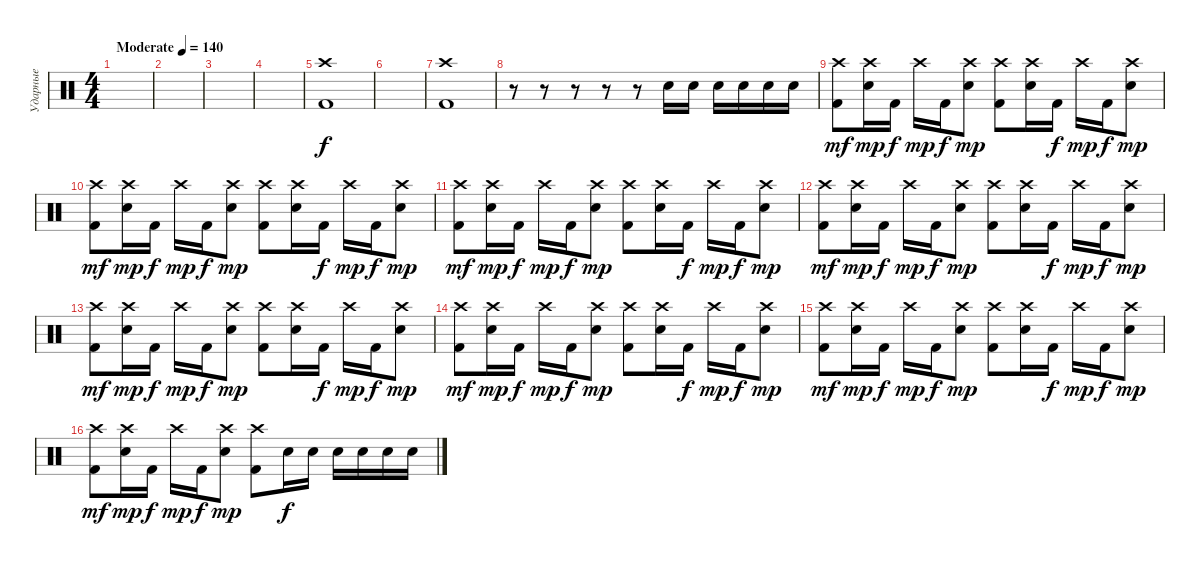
\track ("Ударные" "Ударные") {instrument percussion}
\staff {score}
\articulation defaults
\ts (4 4)
\tempo (140 "Moderate")
\clef neutral
\ks c
|
|
|
|
("Crash high (hit)" "Kick (hit) 2").1 |
|
("Crash high (hit)" "Kick (hit) 2").1 |
r.8 r.8 r.8 r.8 r.8 "Electric Snare (hit)".16 "Electric Snare (hit)".16 "Electric Snare (hit)".16 "Electric Snare (hit)".16 "Electric Snare (hit)".16 "Electric Snare (hit)".16 |
("Crash high (hit)" "Kick (hit) 2").8{dy mf} ("Crash high (hit)" "Electric Snare (hit)").16{dy mp} "Kick (hit) 2".16{dy f} "Crash high (hit)".16{dy mp} "Kick (hit) 2".16{dy f} ("Crash high (hit)" "Electric Snare (hit)").8{dy mp} ("Crash high (hit)" "Kick (hit) 2").8 ("Crash high (hit)" "Electric Snare (hit)").16 "Kick (hit) 2".16{dy f} "Crash high (hit)".16{dy mp} "Kick (hit) 2".16{dy f} ("Crash high (hit)" "Electric Snare (hit)").8{dy mp} |
("Crash high (hit)" "Kick (hit) 2").8{dy mf} ("Crash high (hit)" "Electric Snare (hit)").16{dy mp} "Kick (hit) 2".16{dy f} "Crash high (hit)".16{dy mp} "Kick (hit) 2".16{dy f} ("Crash high (hit)" "Electric Snare (hit)").8{dy mp} ("Crash high (hit)" "Kick (hit) 2").8 ("Crash high (hit)" "Electric Snare (hit)").16 "Kick (hit) 2".16{dy f} "Crash high (hit)".16{dy mp} "Kick (hit) 2".16{dy f} ("Crash high (hit)" "Electric Snare (hit)").8{dy mp} |
("Crash high (hit)" "Kick (hit) 2").8{dy mf} ("Crash high (hit)" "Electric Snare (hit)").16{dy mp} "Kick (hit) 2".16{dy f} "Crash high (hit)".16{dy mp} "Kick (hit) 2".16{dy f} ("Crash high (hit)" "Electric Snare (hit)").8{dy mp} ("Crash high (hit)" "Kick (hit) 2").8 ("Crash high (hit)" "Electric Snare (hit)").16 "Kick (hit) 2".16{dy f} "Crash high (hit)".16{dy mp} "Kick (hit) 2".16{dy f} ("Crash high (hit)" "Electric Snare (hit)").8{dy mp} |
("Crash high (hit)" "Kick (hit) 2").8{dy mf} ("Crash high (hit)" "Electric Snare (hit)").16{dy mp} "Kick (hit) 2".16{dy f} "Crash high (hit)".16{dy mp} "Kick (hit) 2".16{dy f} ("Crash high (hit)" "Electric Snare (hit)").8{dy mp} ("Crash high (hit)" "Kick (hit) 2").8 ("Crash high (hit)" "Electric Snare (hit)").16 "Kick (hit) 2".16{dy f} "Crash high (hit)".16{dy mp} "Kick (hit) 2".16{dy f} ("Crash high (hit)" "Electric Snare (hit)").8{dy mp} |
("Crash high (hit)" "Kick (hit) 2").8{dy mf} ("Crash high (hit)" "Electric Snare (hit)").16{dy mp} "Kick (hit) 2".16{dy f} "Crash high (hit)".16{dy mp} "Kick (hit) 2".16{dy f} ("Crash high (hit)" "Electric Snare (hit)").8{dy mp} ("Crash high (hit)" "Kick (hit) 2").8 ("Crash high (hit)" "Electric Snare (hit)").16 "Kick (hit) 2".16{dy f} "Crash high (hit)".16{dy mp} "Kick (hit) 2".16{dy f} ("Crash high (hit)" "Electric Snare (hit)").8{dy mp} |
("Crash high (hit)" "Kick (hit) 2").8{dy mf} ("Crash high (hit)" "Electric Snare (hit)").16{dy mp} "Kick (hit) 2".16{dy f} "Crash high (hit)".16{dy mp} "Kick (hit) 2".16{dy f} ("Crash high (hit)" "Electric Snare (hit)").8{dy mp} ("Crash high (hit)" "Kick (hit) 2").8 ("Crash high (hit)" "Electric Snare (hit)").16 "Kick (hit) 2".16{dy f} "Crash high (hit)".16{dy mp} "Kick (hit) 2".16{dy f} ("Crash high (hit)" "Electric Snare (hit)").8{dy mp} |
("Crash high (hit)" "Kick (hit) 2").8{dy mf} ("Crash high (hit)" "Electric Snare (hit)").16{dy mp} "Kick (hit) 2".16{dy f} "Crash high (hit)".16{dy mp} "Kick (hit) 2".16{dy f} ("Crash high (hit)" "Electric Snare (hit)").8{dy mp} ("Crash high (hit)" "Kick (hit) 2").8 ("Crash high (hit)" "Electric Snare (hit)").16 "Kick (hit) 2".16{dy f} "Crash high (hit)".16{dy mp} "Kick (hit) 2".16{dy f} ("Crash high (hit)" "Electric Snare (hit)").8{dy mp} |
("Crash high (hit)" "Kick (hit) 2").8{dy mf} ("Crash high (hit)" "Electric Snare (hit)").16{dy mp} "Kick (hit) 2".16{dy f} "Crash high (hit)".16{dy mp} "Kick (hit) 2".16{dy f} ("Crash high (hit)" "Electric Snare (hit)").8{dy mp} ("Crash high (hit)" "Kick (hit) 2").8 "Electric Snare (hit)".16{dy f} "Electric Snare (hit)".16 "Electric Snare (hit)".16 "Electric Snare (hit)".16 "Electric Snare (hit)".16 "Electric Snare (hit)".16
